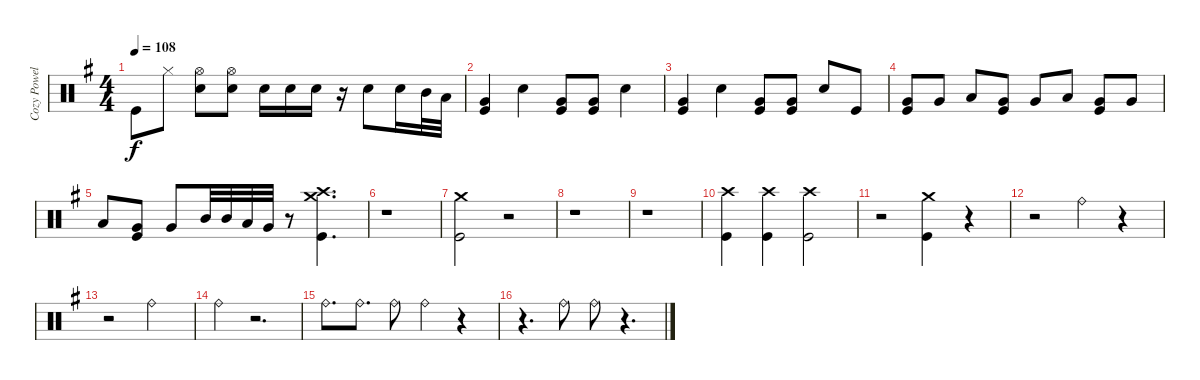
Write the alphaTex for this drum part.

\track ("Cozy Powell Drums" "Cozy Powel") {instrument percussion}
\staff {score}
\articulation defaults
\ts (4 4)
\tempo 108
\clef neutral
\ks g "Kick (hit)".8{dy f} "Hi-Hat (closed)".8
("Hi-Hat (open)" "Snare (hit) 2").8 ("Hi-Hat (open)" "Snare (hit) 2").8 "Snare (hit) 2".16 "Snare (hit) 2".16 "Snare (hit) 2".16 r.16 "Snare (hit) 2".8 "Snare (hit) 2".16 "Mid Tom (hit)".32 "Low Tom (hit)".32 |
("Very Low Tom (hit)" "Kick (hit)").4 "Snare (hit) 2".4 ("Very Low Tom (hit)" "Kick (hit)").8 ("Very Low Tom (hit)" "Kick (hit)").8 "Snare (hit) 2".4 |
("Very Low Tom (hit)" "Kick (hit)").4 "Snare (hit) 2".4 ("Very Low Tom (hit)" "Kick (hit)").8 ("Very Low Tom (hit)" "Kick (hit)").8 "Snare (hit) 2".8 "Kick (hit)".8 |
("Very Low Tom (hit)" "Kick (hit)").8 "Very Low Tom (hit)".8 "Low Floor Tom (hit)".8 ("Very Low Tom (hit)" "Kick (hit)").8 "Very Low Tom (hit)".8 "Low Floor Tom (hit)".8 ("Very Low Tom (hit)" "Kick (hit)").8 "Very Low Tom (hit)".8 |
"Low Floor Tom (hit)".8 ("Very Low Tom (hit)" "Kick (hit)").8 "Very Low Tom (hit)".8 "Mid Tom (hit)".32 "Mid Tom (hit)".32 "Low Tom (hit)".32 "Very Low Tom (hit)".32 r.8 ("Crash high (hit)" "Crash medium (hit)" "Kick (hit)").4{d} |
r.1 |
("Crash medium (hit)" "Kick (hit)").2 r.2 |
r.1 |
r.1 |
("Crash high (hit)" "Kick (hit)").4 ("Crash high (hit)" "Kick (hit)").4 ("Crash high (hit)" "Kick (hit)").2 |
r.2 ("Crash medium (hit)" "Kick (hit)").4 r.4 |
r.2 "Ride (bell)".4 r.4 |
r.2 "Ride (bell)".2 |
"Ride (bell)".4 r.2{d} |
"Ride (bell)".8{d} "Ride (bell)".8{d} "Ride (bell)".8 "Ride (bell)".4 r.4 |
r.4{d} "Ride (bell)".8 "Ride (bell)".8 r.4{d}
